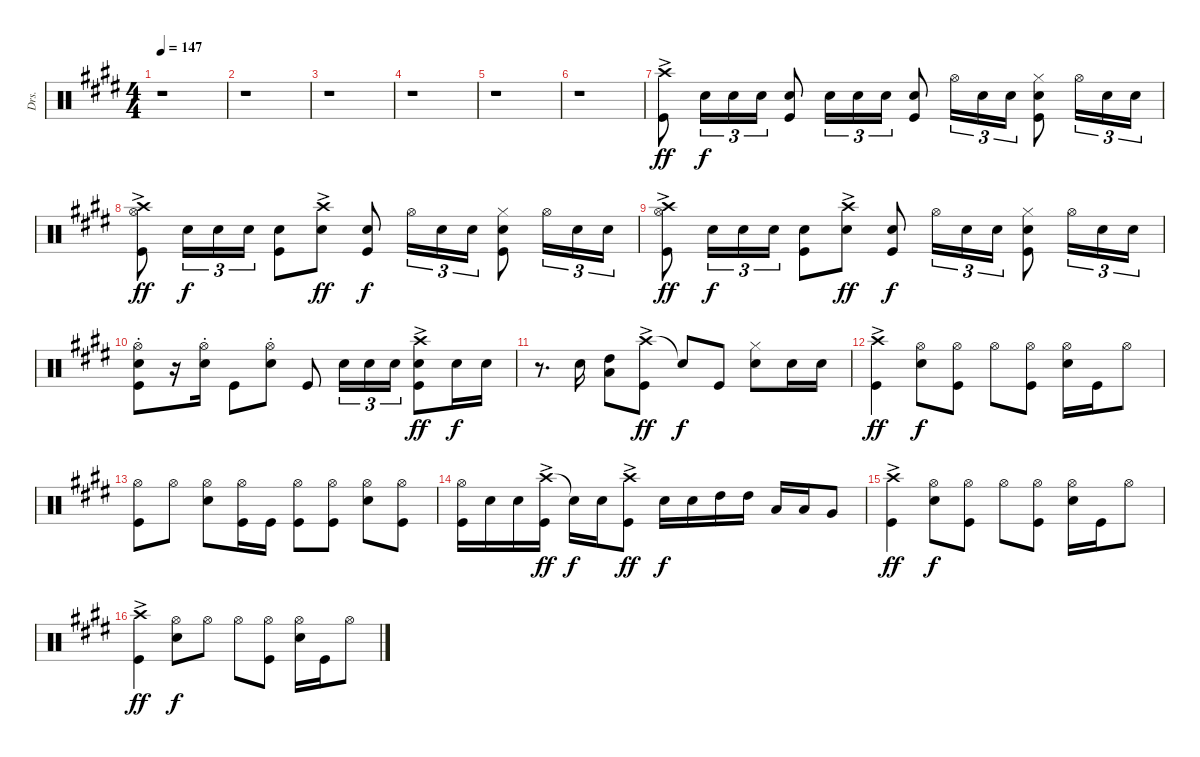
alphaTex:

\track ("Drs." "Drs.") {instrument percussion}
\staff {score}
\articulation defaults
\ts (4 4)
\tempo 147
\clef neutral
\ks e
r.1{dy ff} |
r.1 |
r.1 |
r.1 |
r.1 |
r.1 |
("Crash high (hit)"{ac} "Kick (hit)").8 "Snare (hit) 2".16{tu (3 2) dy f} "Snare (hit) 2".16{tu (3 2)} "Snare (hit) 2".16{tu (3 2)} ("Snare (hit) 2" "Kick (hit)").8 "Snare (hit) 2".16{tu (3 2)} "Snare (hit) 2".16{tu (3 2)} "Snare (hit) 2".16{tu (3 2)} ("Snare (hit) 2" "Kick (hit)").8 "Hi-Hat (open)".16{tu (3 2)} "Snare (hit) 2".16{tu (3 2)} "Snare (hit) 2".16{tu (3 2)} ("Hi-Hat (closed)" "Snare (hit) 2" "Kick (hit)").8 "Hi-Hat (open)".16{tu (3 2)} "Snare (hit) 2".16{tu (3 2)} "Snare (hit) 2".16{tu (3 2)} |
("Crash high (hit)"{ac} "Hi-Hat (open)" "Kick (hit)").8{dy ff} "Snare (hit) 2".16{tu (3 2) dy f} "Snare (hit) 2".16{tu (3 2)} "Snare (hit) 2".16{tu (3 2)} ("Snare (hit) 2" "Kick (hit)").8 ("Crash high (hit)"{ac} "Snare (hit) 2").8{dy ff} ("Snare (hit) 2" "Kick (hit)").8{dy f} "Hi-Hat (open)".16{tu (3 2)} "Snare (hit) 2".16{tu (3 2)} "Snare (hit) 2".16{tu (3 2)} ("Hi-Hat (closed)" "Snare (hit) 2" "Kick (hit)").8 "Hi-Hat (open)".16{tu (3 2)} "Snare (hit) 2".16{tu (3 2)} "Snare (hit) 2".16{tu (3 2)} |
("Crash high (hit)"{ac} "Hi-Hat (open)" "Kick (hit)").8{dy ff} "Snare (hit) 2".16{tu (3 2) dy f} "Snare (hit) 2".16{tu (3 2)} "Snare (hit) 2".16{tu (3 2)} ("Snare (hit) 2" "Kick (hit)").8 ("Crash high (hit)"{ac} "Snare (hit) 2").8{dy ff} ("Snare (hit) 2" "Kick (hit)").8{dy f} "Hi-Hat (open)".16{tu (3 2)} "Snare (hit) 2".16{tu (3 2)} "Snare (hit) 2".16{tu (3 2)} ("Hi-Hat (closed)" "Snare (hit) 2" "Kick (hit)").8 "Hi-Hat (open)".16{tu (3 2)} "Snare (hit) 2".16{tu (3 2)} "Snare (hit) 2".16{tu (3 2)} |
("Hi-Hat (open)"{st} "Snare (hit) 2"{st} "Kick (hit)"{st}).8 r.16 ("Hi-Hat (open)"{st} "Snare (hit) 2"{st}).16 "Kick (hit)".8 ("Hi-Hat (open)"{st} "Snare (hit) 2"{st}).8 "Kick (hit)".8 "Snare (hit) 2".16{tu (3 2)} "Snare (hit) 2".16{tu (3 2)} "Snare (hit) 2".16{tu (3 2)} ("Crash high (hit)"{ac} "Snare (hit) 2" "Kick (hit)").8{dy ff} "Snare (hit) 2".16{dy f} "Snare (hit) 2".16 |
r.8{d} "Snare (hit) 2".16 ("High Tom (hit)" "Low Tom (hit)").8 ("Crash high (hit)"{ac} "Kick (hit)").8{dy ff} "Snare (hit)"{t}.8{dy f} "Kick (hit)".8 ("Hi-Hat (closed)" "Snare (hit) 2").8 "Snare (hit) 2".16 "Snare (hit) 2".16 |
("Crash high (hit)"{ac} "Kick (hit)").4{dy ff} ("Hi-Hat (open)" "Snare (hit) 2").8{dy f} ("Hi-Hat (open)" "Kick (hit)").8 "Hi-Hat (open)".8 ("Hi-Hat (open)" "Kick (hit)").8 ("Hi-Hat (open)" "Snare (hit) 2").16 "Kick (hit)".16 "Hi-Hat (open)".8 |
("Hi-Hat (open)" "Kick (hit)").8 "Hi-Hat (open)".8 ("Hi-Hat (open)" "Snare (hit) 2").8 ("Hi-Hat (open)" "Kick (hit)").16 "Kick (hit)".16 ("Hi-Hat (open)" "Kick (hit)").8 ("Hi-Hat (open)" "Kick (hit)").8 ("Hi-Hat (open)" "Snare (hit) 2").8 ("Hi-Hat (open)" "Kick (hit)").8 |
("Hi-Hat (open)" "Kick (hit)").16 "Snare (hit) 2".16 "Snare (hit) 2".16 ("Crash high (hit)"{ac} "Kick (hit)").16{dy ff} "Snare (hit)"{t}.16{dy f} "Snare (hit) 2".16 ("Crash high (hit)"{ac} "Kick (hit)").8{dy ff} "Snare (hit) 2".16{dy f} "Snare (hit) 2".16 "High Tom (hit)".16 "High Tom (hit)".16 "Low Tom (hit)".16 "Low Tom (hit)".16 "Very Low Tom (hit)".8 |
("Crash high (hit)"{ac} "Kick (hit)").4{dy ff} ("Hi-Hat (open)" "Snare (hit) 2").8{dy f} ("Hi-Hat (open)" "Kick (hit)").8 "Hi-Hat (open)".8 ("Hi-Hat (open)" "Kick (hit)").8 ("Hi-Hat (open)" "Snare (hit) 2").16 "Kick (hit)".16 "Hi-Hat (open)".8 |
("Crash high (hit)"{ac} "Kick (hit)").4{dy ff} ("Hi-Hat (open)" "Snare (hit) 2").8{dy f} "Hi-Hat (open)".8 "Hi-Hat (open)".8 ("Hi-Hat (open)" "Kick (hit)").8 ("Hi-Hat (open)" "Snare (hit) 2").16 "Kick (hit)".16 "Hi-Hat (open)".8
